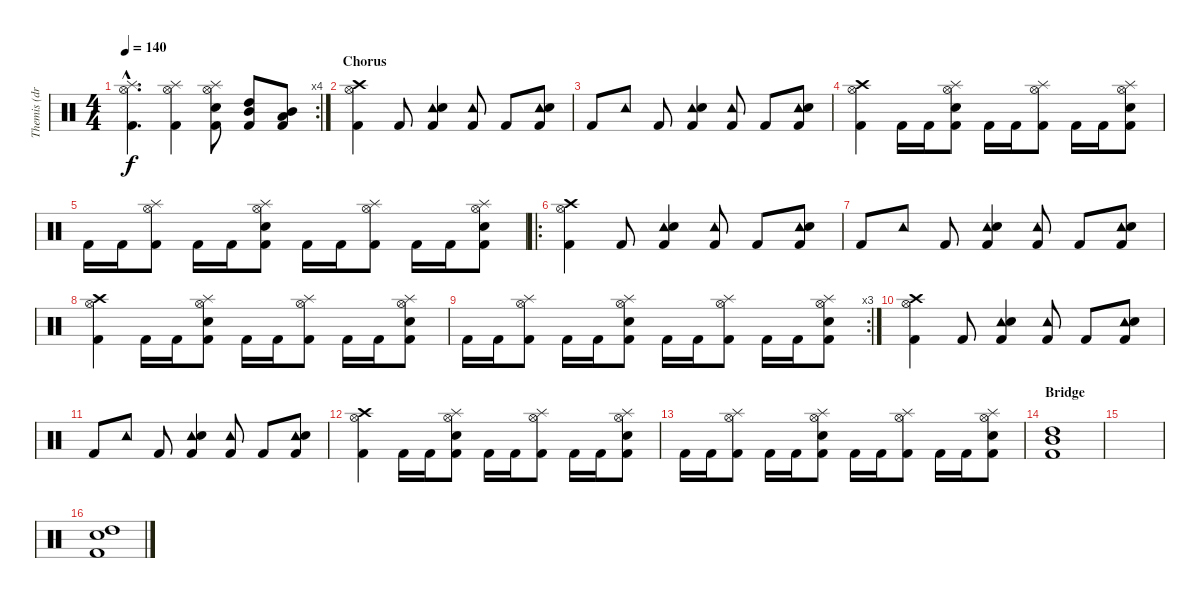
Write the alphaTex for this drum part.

\track ("Themis (drums)" "Themis (dr") {instrument percussion}
\staff {score}
\articulation defaults
\rc 4
\ts (4 4)
\tempo 140
\clef neutral
\ks c
("Hi-Hat (open)"{hac} "Splash (hit)"{hac} "Kick (hit) 2"{hac}).4{d dy f} ("Hi-Hat (open)" "Splash (hit)" "Kick (hit) 2").4 ("Hi-Hat (open)" "Splash (hit)" "Electric Snare (hit)" "Kick (hit) 2").8 ("High Tom (hit)" "Mid Tom (hit)" "Kick (hit) 2").8 ("Mid Tom (hit)" "Low Tom (hit)" "Kick (hit) 2").8 |
\section ("" "Chorus")
("Crash high (hit)" "Hi-Hat (open)" "Kick (hit) 2").4 "Kick (hit) 2".8 ("Tambourine (hit)" "Electric Snare (hit)" "Kick (hit) 2").4 ("Tambourine (hit)" "Kick (hit) 2").8 "Kick (hit) 2".8 ("Tambourine (hit)" "Electric Snare (hit)" "Kick (hit) 2").8 |
"Kick (hit) 2".8 "Tambourine (hit)".8 "Kick (hit) 2".8 ("Tambourine (hit)" "Electric Snare (hit)" "Kick (hit) 2").4 ("Tambourine (hit)" "Kick (hit) 2").8 "Kick (hit) 2".8 ("Tambourine (hit)" "Electric Snare (hit)" "Kick (hit) 2").8 |
("Crash high (hit)" "Hi-Hat (open)" "Kick (hit) 2").4 "Kick (hit) 2".16 "Kick (hit) 2".16 ("Splash (hit)" "Hi-Hat (open)" "Electric Snare (hit)" "Kick (hit) 2").8 "Kick (hit) 2".16 "Kick (hit) 2".16 ("Splash (hit)" "Hi-Hat (open)" "Kick (hit) 2").8 "Kick (hit) 2".16 "Kick (hit) 2".16 ("Splash (hit)" "Hi-Hat (open)" "Electric Snare (hit)" "Kick (hit) 2").8 |
"Kick (hit) 2".16 "Kick (hit) 2".16 ("Splash (hit)" "Hi-Hat (open)" "Kick (hit) 2").8 "Kick (hit) 2".16 "Kick (hit) 2".16 ("Splash (hit)" "Hi-Hat (open)" "Electric Snare (hit)" "Kick (hit) 2").8 "Kick (hit) 2".16 "Kick (hit) 2".16 ("Splash (hit)" "Hi-Hat (open)" "Kick (hit) 2").8 "Kick (hit) 2".16 "Kick (hit) 2".16 ("Splash (hit)" "Hi-Hat (open)" "Electric Snare (hit)" "Kick (hit) 2").8 |
\ro
("Crash high (hit)" "Hi-Hat (open)" "Kick (hit) 2").4 "Kick (hit) 2".8 ("Tambourine (hit)" "Electric Snare (hit)" "Kick (hit) 2").4 ("Tambourine (hit)" "Kick (hit) 2").8 "Kick (hit) 2".8 ("Tambourine (hit)" "Electric Snare (hit)" "Kick (hit) 2").8 |
"Kick (hit) 2".8 "Tambourine (hit)".8 "Kick (hit) 2".8 ("Tambourine (hit)" "Electric Snare (hit)" "Kick (hit) 2").4 ("Tambourine (hit)" "Kick (hit) 2").8 "Kick (hit) 2".8 ("Tambourine (hit)" "Electric Snare (hit)" "Kick (hit) 2").8 |
("Crash high (hit)" "Hi-Hat (open)" "Kick (hit) 2").4 "Kick (hit) 2".16 "Kick (hit) 2".16 ("Splash (hit)" "Hi-Hat (open)" "Electric Snare (hit)" "Kick (hit) 2").8 "Kick (hit) 2".16 "Kick (hit) 2".16 ("Splash (hit)" "Hi-Hat (open)" "Kick (hit) 2").8 "Kick (hit) 2".16 "Kick (hit) 2".16 ("Splash (hit)" "Hi-Hat (open)" "Electric Snare (hit)" "Kick (hit) 2").8 |
\rc 3 "Kick (hit) 2".16 "Kick (hit) 2".16
("Splash (hit)" "Hi-Hat (open)" "Kick (hit) 2").8 "Kick (hit) 2".16 "Kick (hit) 2".16 ("Splash (hit)" "Hi-Hat (open)" "Electric Snare (hit)" "Kick (hit) 2").8 "Kick (hit) 2".16 "Kick (hit) 2".16 ("Splash (hit)" "Hi-Hat (open)" "Kick (hit) 2").8 "Kick (hit) 2".16 "Kick (hit) 2".16 ("Splash (hit)" "Hi-Hat (open)" "Electric Snare (hit)" "Kick (hit) 2").8 |
("Crash high (hit)" "Hi-Hat (open)" "Kick (hit) 2").4 "Kick (hit) 2".8 ("Tambourine (hit)" "Electric Snare (hit)" "Kick (hit) 2").4 ("Tambourine (hit)" "Kick (hit) 2").8 "Kick (hit) 2".8 ("Tambourine (hit)" "Electric Snare (hit)" "Kick (hit) 2").8 |
"Kick (hit) 2".8 "Tambourine (hit)".8 "Kick (hit) 2".8 ("Tambourine (hit)" "Electric Snare (hit)" "Kick (hit) 2").4 ("Tambourine (hit)" "Kick (hit) 2").8 "Kick (hit) 2".8 ("Tambourine (hit)" "Electric Snare (hit)" "Kick (hit) 2").8 |
("Crash high (hit)" "Hi-Hat (open)" "Kick (hit) 2").4 "Kick (hit) 2".16 "Kick (hit) 2".16 ("Splash (hit)" "Hi-Hat (open)" "Electric Snare (hit)" "Kick (hit) 2").8 "Kick (hit) 2".16 "Kick (hit) 2".16 ("Splash (hit)" "Hi-Hat (open)" "Kick (hit) 2").8 "Kick (hit) 2".16 "Kick (hit) 2".16 ("Splash (hit)" "Hi-Hat (open)" "Electric Snare (hit)" "Kick (hit) 2").8 |
"Kick (hit) 2".16 "Kick (hit) 2".16 ("Splash (hit)" "Hi-Hat (open)" "Kick (hit) 2").8 "Kick (hit) 2".16 "Kick (hit) 2".16 ("Splash (hit)" "Hi-Hat (open)" "Electric Snare (hit)" "Kick (hit) 2").8 "Kick (hit) 2".16 "Kick (hit) 2".16 ("Splash (hit)" "Hi-Hat (open)" "Kick (hit) 2").8 "Kick (hit) 2".16 "Kick (hit) 2".16 ("Splash (hit)" "Hi-Hat (open)" "Electric Snare (hit)" "Kick (hit) 2").8 |
\section ("" "Bridge")
("Mid Tom (hit)" "High Tom (hit)" "Kick (hit) 2").1 |
|
("High Tom (hit)" "Electric Snare (hit)" "Kick (hit) 2").1
